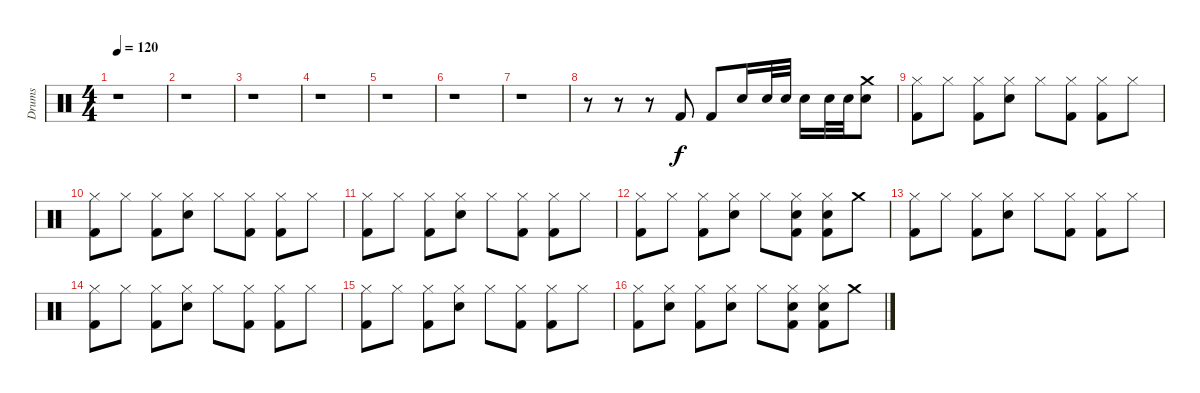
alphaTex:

\track ("Drums" "Drums") {instrument percussion}
\staff {score}
\articulation defaults
\ts (4 4)
\tempo 120
\clef neutral
\ks c
r.1{dy f volume 13} |
r.1 |
r.1 |
r.1 |
r.1 |
r.1 |
r.1 |
r.8 r.8 r.8 "Kick (hit) 2".8 "Kick (hit) 2".8 "Electric Snare (hit)".16 "Electric Snare (hit)".32 "Electric Snare (hit)".32 "Electric Snare (hit)".16 "Electric Snare (hit)".32 "Electric Snare (hit)".32 ("Crash medium (hit)" "Electric Snare (hit)").8 |
("Hi-Hat (closed)" "Kick (hit) 2").8 "Hi-Hat (closed)".8 ("Hi-Hat (closed)" "Kick (hit) 2").8 ("Hi-Hat (closed)" "Electric Snare (hit)").8 "Hi-Hat (closed)".8 ("Hi-Hat (closed)" "Kick (hit) 2").8 ("Hi-Hat (closed)" "Kick (hit) 2").8 "Hi-Hat (closed)".8 |
("Hi-Hat (closed)" "Kick (hit) 2").8 "Hi-Hat (closed)".8 ("Hi-Hat (closed)" "Kick (hit) 2").8 ("Hi-Hat (closed)" "Electric Snare (hit)").8 "Hi-Hat (closed)".8 ("Hi-Hat (closed)" "Kick (hit) 2").8 ("Hi-Hat (closed)" "Kick (hit) 2").8 "Hi-Hat (closed)".8 |
("Hi-Hat (closed)" "Kick (hit) 2").8 "Hi-Hat (closed)".8 ("Hi-Hat (closed)" "Kick (hit) 2").8 ("Hi-Hat (closed)" "Electric Snare (hit)").8 "Hi-Hat (closed)".8 ("Hi-Hat (closed)" "Kick (hit) 2").8 ("Hi-Hat (closed)" "Kick (hit) 2").8 "Hi-Hat (closed)".8 |
("Hi-Hat (closed)" "Kick (hit) 2").8 "Hi-Hat (closed)".8 ("Hi-Hat (closed)" "Kick (hit) 2").8 ("Hi-Hat (closed)" "Electric Snare (hit)").8 "Hi-Hat (closed)".8 ("Hi-Hat (closed)" "Electric Snare (hit)" "Kick (hit) 2").8 ("Hi-Hat (closed)" "Electric Snare (hit)" "Kick (hit) 2").8 "Crash medium (hit)".8 |
("Hi-Hat (closed)" "Kick (hit) 2").8 "Hi-Hat (closed)".8 ("Hi-Hat (closed)" "Kick (hit) 2").8 ("Hi-Hat (closed)" "Electric Snare (hit)").8 "Hi-Hat (closed)".8 ("Hi-Hat (closed)" "Kick (hit) 2").8 ("Hi-Hat (closed)" "Kick (hit) 2").8 "Hi-Hat (closed)".8 |
("Hi-Hat (closed)" "Kick (hit) 2").8 "Hi-Hat (closed)".8 ("Hi-Hat (closed)" "Kick (hit) 2").8 ("Hi-Hat (closed)" "Electric Snare (hit)").8 "Hi-Hat (closed)".8 ("Hi-Hat (closed)" "Kick (hit) 2").8 ("Hi-Hat (closed)" "Kick (hit) 2").8 "Hi-Hat (closed)".8 |
("Hi-Hat (closed)" "Kick (hit) 2").8 "Hi-Hat (closed)".8 ("Hi-Hat (closed)" "Kick (hit) 2").8 ("Hi-Hat (closed)" "Electric Snare (hit)").8 "Hi-Hat (closed)".8 ("Hi-Hat (closed)" "Kick (hit) 2").8 ("Hi-Hat (closed)" "Kick (hit) 2").8 "Hi-Hat (closed)".8 |
("Hi-Hat (closed)" "Kick (hit) 2").8 ("Hi-Hat (closed)" "Electric Snare (hit)").8 ("Hi-Hat (closed)" "Kick (hit) 2").8 ("Hi-Hat (closed)" "Electric Snare (hit)").8 "Hi-Hat (closed)".8 ("Hi-Hat (closed)" "Electric Snare (hit)" "Kick (hit) 2").8 ("Hi-Hat (closed)" "Electric Snare (hit)" "Kick (hit) 2").8 "Crash medium (hit)".8
